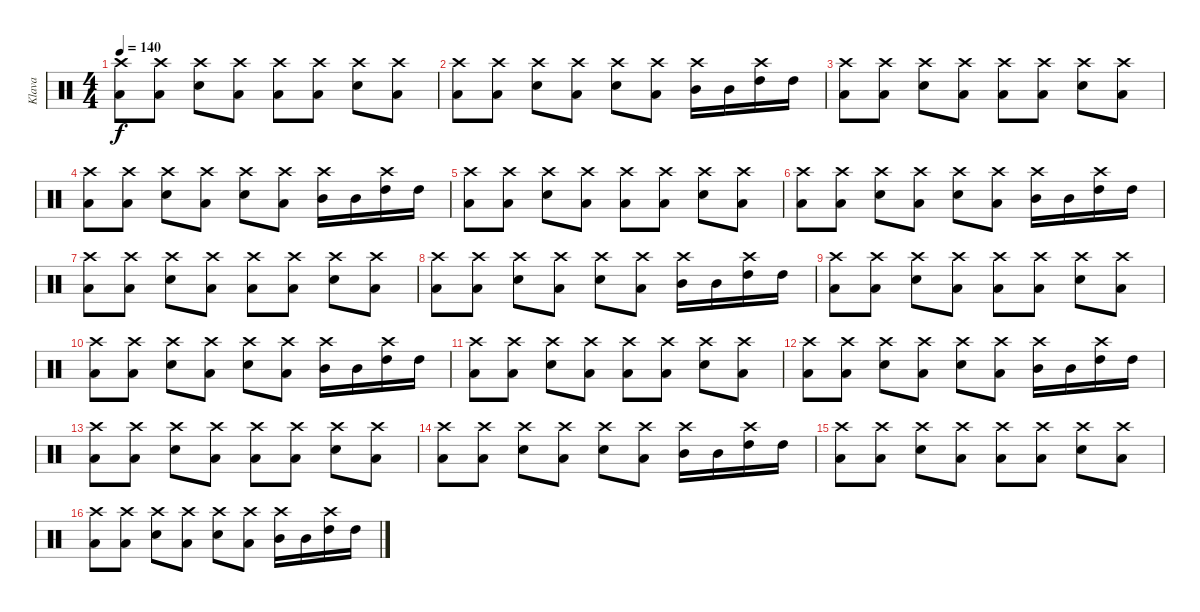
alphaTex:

\track ("Klava" "Klava") {instrument percussion}
\staff {score}
\articulation defaults
\ts (4 4)
\tempo 140
\clef neutral
\ks c
("Crash high (hit)" "Low Tom (hit)").8{dy f} ("Crash high (hit)" "Low Tom (hit)").8 ("Crash high (hit)" "Electric Snare (hit)").8 ("Crash high (hit)" "Low Tom (hit)").8 ("Crash high (hit)" "Low Tom (hit)").8 ("Crash high (hit)" "Low Tom (hit)").8 ("Crash high (hit)" "Electric Snare (hit)").8 ("Crash high (hit)" "Low Tom (hit)").8 |
("Crash high (hit)" "Low Tom (hit)").8 ("Crash high (hit)" "Low Tom (hit)").8 ("Crash high (hit)" "Electric Snare (hit)").8 ("Crash high (hit)" "Low Tom (hit)").8 ("Crash high (hit)" "Electric Snare (hit)").8 ("Crash high (hit)" "Low Tom (hit)").8 ("Crash high (hit)" "Mid Tom (hit)").16 "Mid Tom (hit)".16 ("Crash high (hit)" "High Tom (hit)").16 "High Tom (hit)".16 |
("Crash high (hit)" "Low Tom (hit)").8 ("Crash high (hit)" "Low Tom (hit)").8 ("Crash high (hit)" "Electric Snare (hit)").8 ("Crash high (hit)" "Low Tom (hit)").8 ("Crash high (hit)" "Low Tom (hit)").8 ("Crash high (hit)" "Low Tom (hit)").8 ("Crash high (hit)" "Electric Snare (hit)").8 ("Crash high (hit)" "Low Tom (hit)").8 |
("Crash high (hit)" "Low Tom (hit)").8 ("Crash high (hit)" "Low Tom (hit)").8 ("Crash high (hit)" "Electric Snare (hit)").8 ("Crash high (hit)" "Low Tom (hit)").8 ("Crash high (hit)" "Electric Snare (hit)").8 ("Crash high (hit)" "Low Tom (hit)").8 ("Crash high (hit)" "Mid Tom (hit)").16 "Mid Tom (hit)".16 ("Crash high (hit)" "High Tom (hit)").16 "High Tom (hit)".16 |
("Crash high (hit)" "Low Tom (hit)").8 ("Crash high (hit)" "Low Tom (hit)").8 ("Crash high (hit)" "Electric Snare (hit)").8 ("Crash high (hit)" "Low Tom (hit)").8 ("Crash high (hit)" "Low Tom (hit)").8 ("Crash high (hit)" "Low Tom (hit)").8 ("Crash high (hit)" "Electric Snare (hit)").8 ("Crash high (hit)" "Low Tom (hit)").8 |
("Crash high (hit)" "Low Tom (hit)").8 ("Crash high (hit)" "Low Tom (hit)").8 ("Crash high (hit)" "Electric Snare (hit)").8 ("Crash high (hit)" "Low Tom (hit)").8 ("Crash high (hit)" "Electric Snare (hit)").8 ("Crash high (hit)" "Low Tom (hit)").8 ("Crash high (hit)" "Mid Tom (hit)").16 "Mid Tom (hit)".16 ("Crash high (hit)" "High Tom (hit)").16 "High Tom (hit)".16 |
("Crash high (hit)" "Low Tom (hit)").8 ("Crash high (hit)" "Low Tom (hit)").8 ("Crash high (hit)" "Electric Snare (hit)").8 ("Crash high (hit)" "Low Tom (hit)").8 ("Crash high (hit)" "Low Tom (hit)").8 ("Crash high (hit)" "Low Tom (hit)").8 ("Crash high (hit)" "Electric Snare (hit)").8 ("Crash high (hit)" "Low Tom (hit)").8 |
("Crash high (hit)" "Low Tom (hit)").8 ("Crash high (hit)" "Low Tom (hit)").8 ("Crash high (hit)" "Electric Snare (hit)").8 ("Crash high (hit)" "Low Tom (hit)").8 ("Crash high (hit)" "Electric Snare (hit)").8 ("Crash high (hit)" "Low Tom (hit)").8 ("Crash high (hit)" "Mid Tom (hit)").16 "Mid Tom (hit)".16 ("Crash high (hit)" "High Tom (hit)").16 "High Tom (hit)".16 |
("Crash high (hit)" "Low Tom (hit)").8 ("Crash high (hit)" "Low Tom (hit)").8 ("Crash high (hit)" "Electric Snare (hit)").8 ("Crash high (hit)" "Low Tom (hit)").8 ("Crash high (hit)" "Low Tom (hit)").8 ("Crash high (hit)" "Low Tom (hit)").8 ("Crash high (hit)" "Electric Snare (hit)").8 ("Crash high (hit)" "Low Tom (hit)").8 |
("Crash high (hit)" "Low Tom (hit)").8 ("Crash high (hit)" "Low Tom (hit)").8 ("Crash high (hit)" "Electric Snare (hit)").8 ("Crash high (hit)" "Low Tom (hit)").8 ("Crash high (hit)" "Electric Snare (hit)").8 ("Crash high (hit)" "Low Tom (hit)").8 ("Crash high (hit)" "Mid Tom (hit)").16 "Mid Tom (hit)".16 ("Crash high (hit)" "High Tom (hit)").16 "High Tom (hit)".16 |
("Crash high (hit)" "Low Tom (hit)").8 ("Crash high (hit)" "Low Tom (hit)").8 ("Crash high (hit)" "Electric Snare (hit)").8 ("Crash high (hit)" "Low Tom (hit)").8 ("Crash high (hit)" "Low Tom (hit)").8 ("Crash high (hit)" "Low Tom (hit)").8 ("Crash high (hit)" "Electric Snare (hit)").8 ("Crash high (hit)" "Low Tom (hit)").8 |
("Crash high (hit)" "Low Tom (hit)").8 ("Crash high (hit)" "Low Tom (hit)").8 ("Crash high (hit)" "Electric Snare (hit)").8 ("Crash high (hit)" "Low Tom (hit)").8 ("Crash high (hit)" "Electric Snare (hit)").8 ("Crash high (hit)" "Low Tom (hit)").8 ("Crash high (hit)" "Mid Tom (hit)").16 "Mid Tom (hit)".16 ("Crash high (hit)" "High Tom (hit)").16 "High Tom (hit)".16 |
("Crash high (hit)" "Low Tom (hit)").8 ("Crash high (hit)" "Low Tom (hit)").8 ("Crash high (hit)" "Electric Snare (hit)").8 ("Crash high (hit)" "Low Tom (hit)").8 ("Crash high (hit)" "Low Tom (hit)").8 ("Crash high (hit)" "Low Tom (hit)").8 ("Crash high (hit)" "Electric Snare (hit)").8 ("Crash high (hit)" "Low Tom (hit)").8 |
("Crash high (hit)" "Low Tom (hit)").8 ("Crash high (hit)" "Low Tom (hit)").8 ("Crash high (hit)" "Electric Snare (hit)").8 ("Crash high (hit)" "Low Tom (hit)").8 ("Crash high (hit)" "Electric Snare (hit)").8 ("Crash high (hit)" "Low Tom (hit)").8 ("Crash high (hit)" "Mid Tom (hit)").16 "Mid Tom (hit)".16 ("Crash high (hit)" "High Tom (hit)").16 "High Tom (hit)".16 |
("Crash high (hit)" "Low Tom (hit)").8 ("Crash high (hit)" "Low Tom (hit)").8 ("Crash high (hit)" "Electric Snare (hit)").8 ("Crash high (hit)" "Low Tom (hit)").8 ("Crash high (hit)" "Low Tom (hit)").8 ("Crash high (hit)" "Low Tom (hit)").8 ("Crash high (hit)" "Electric Snare (hit)").8 ("Crash high (hit)" "Low Tom (hit)").8 |
("Crash high (hit)" "Low Tom (hit)").8 ("Crash high (hit)" "Low Tom (hit)").8 ("Crash high (hit)" "Electric Snare (hit)").8 ("Crash high (hit)" "Low Tom (hit)").8 ("Crash high (hit)" "Electric Snare (hit)").8 ("Crash high (hit)" "Low Tom (hit)").8 ("Crash high (hit)" "Mid Tom (hit)").16 "Mid Tom (hit)".16 ("Crash high (hit)" "High Tom (hit)").16 "High Tom (hit)".16
